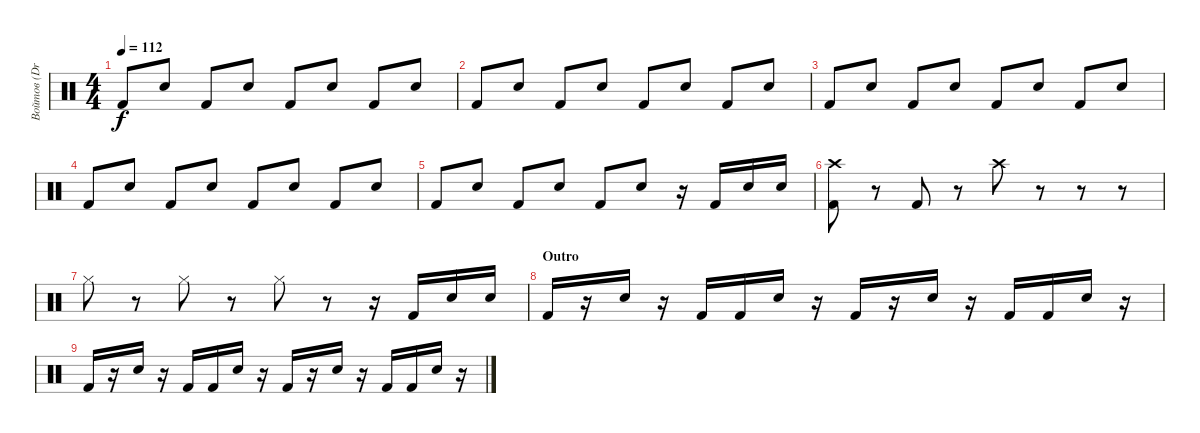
\track ("Войтов (Drums)" "Войтов (Dr") {instrument percussion}
\staff {score}
\articulation defaults
\ts (4 4)
\tempo 112
\clef neutral
\ks c "Kick (hit) 2".8{dy f} "Electric Snare (hit)".8 "Kick (hit) 2".8 "Electric Snare (hit)".8 "Kick (hit) 2".8 "Electric Snare (hit)".8 "Kick (hit) 2".8 "Electric Snare (hit)".8
|
"Kick (hit) 2".8 "Electric Snare (hit)".8 "Kick (hit) 2".8 "Electric Snare (hit)".8 "Kick (hit) 2".8 "Electric Snare (hit)".8 "Kick (hit) 2".8 "Electric Snare (hit)".8 |
"Kick (hit) 2".8 "Electric Snare (hit)".8 "Kick (hit) 2".8 "Electric Snare (hit)".8 "Kick (hit) 2".8 "Electric Snare (hit)".8 "Kick (hit) 2".8 "Electric Snare (hit)".8 |
"Kick (hit) 2".8 "Electric Snare (hit)".8 "Kick (hit) 2".8 "Electric Snare (hit)".8 "Kick (hit) 2".8 "Electric Snare (hit)".8 "Kick (hit) 2".8 "Electric Snare (hit)".8 |
"Kick (hit) 2".8 "Electric Snare (hit)".8 "Kick (hit) 2".8 "Electric Snare (hit)".8 "Kick (hit) 2".8 "Electric Snare (hit)".8 r.16 "Kick (hit) 2".16 "Electric Snare (hit)".16 "Electric Snare (hit)".16 |
("Kick (hit) 2" "Crash high (hit)").8 r.8 "Kick (hit) 2".8 r.8 "Crash high (hit)".8 r.8 r.8 r.8 |
"Hi-Hat (closed)".8 r.8 "Hi-Hat (closed)".8 r.8 "Hi-Hat (closed)".8 r.8 r.16 "Kick (hit) 2".16 "Electric Snare (hit)".16 "Electric Snare (hit)".16 |
\section ("" "Outro")
"Kick (hit) 2".16 r.16 "Electric Snare (hit)".16 r.16 "Kick (hit) 2".16 "Kick (hit) 2".16 "Electric Snare (hit)".16 r.16 "Kick (hit) 2".16 r.16 "Electric Snare (hit)".16 r.16 "Kick (hit) 2".16 "Kick (hit) 2".16 "Electric Snare (hit)".16 r.16 |
"Kick (hit) 2".16 r.16 "Electric Snare (hit)".16 r.16 "Kick (hit) 2".16 "Kick (hit) 2".16 "Electric Snare (hit)".16 r.16 "Kick (hit) 2".16 r.16 "Electric Snare (hit)".16 r.16 "Kick (hit) 2".16 "Kick (hit) 2".16 "Electric Snare (hit)".16 r.16
